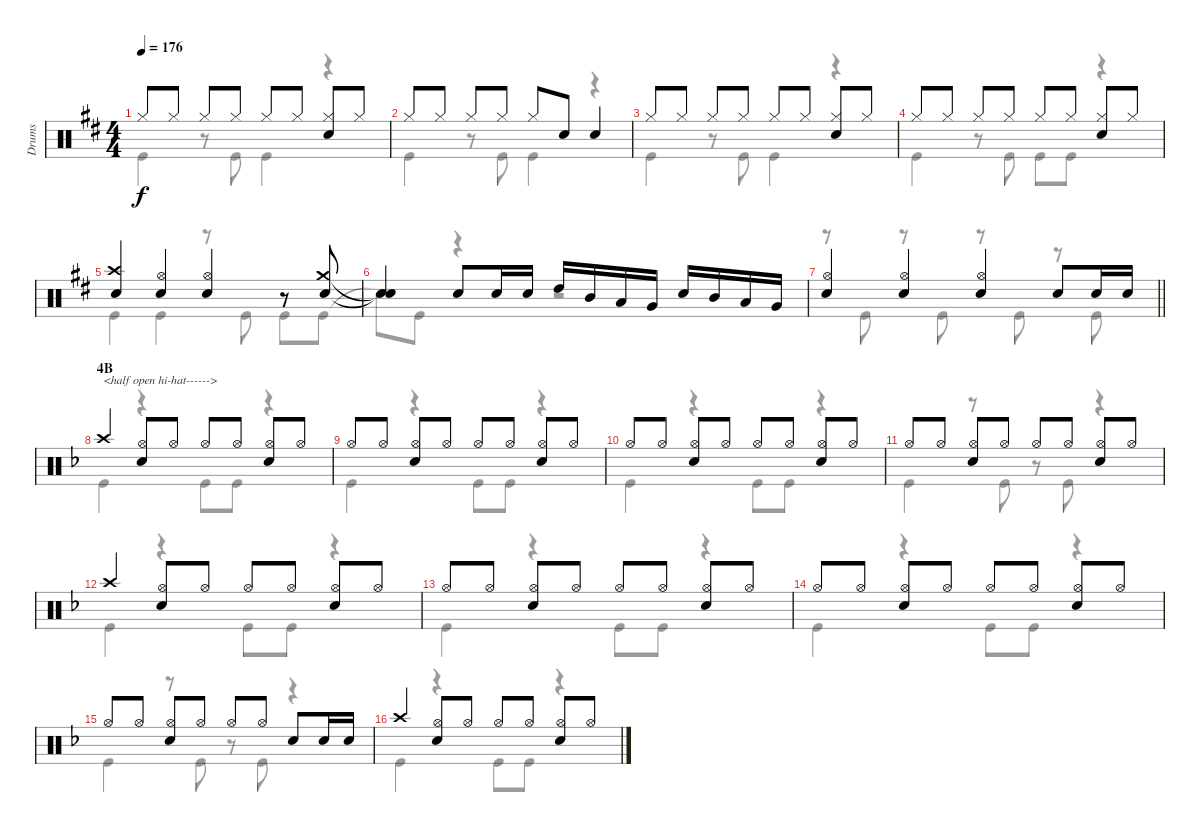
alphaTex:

\track ("Drums" "Drums") {instrument percussion}
\staff {score}
\articulation defaults
\voice
\ts (4 4)
\tempo 176
\clef neutral
\ks d "Hi-Hat (closed)".8{dy f} "Hi-Hat (closed)".8 "Hi-Hat (closed)".8 "Hi-Hat (closed)".8 "Hi-Hat (closed)".8 "Hi-Hat (closed)".8
("Hi-Hat (closed)" "Snare (hit) 2").8 "Hi-Hat (closed)".8 |
"Hi-Hat (closed)".8 "Hi-Hat (closed)".8 "Hi-Hat (closed)".8 "Hi-Hat (closed)".8 "Hi-Hat (closed)".8 "Snare (hit) 2".8 "Snare (hit) 2".4 |
"Hi-Hat (closed)".8 "Hi-Hat (closed)".8 "Hi-Hat (closed)".8 "Hi-Hat (closed)".8 "Hi-Hat (closed)".8 "Hi-Hat (closed)".8 ("Hi-Hat (closed)" "Snare (hit) 2").8 "Hi-Hat (closed)".8 |
"Hi-Hat (closed)".8 "Hi-Hat (closed)".8 "Hi-Hat (closed)".8 "Hi-Hat (closed)".8 "Hi-Hat (closed)".8 "Hi-Hat (closed)".8 ("Hi-Hat (closed)" "Snare (hit) 2").8 "Hi-Hat (closed)".8 |
("Crash high (hit)" "Snare (hit) 2").4 ("Hi-Hat (open)" "Snare (hit) 2").4 ("Hi-Hat (open)" "Snare (hit) 2").4 r.8 ("Crash medium (hit)" "Snare (hit) 2").8 |
("Snare (hit)"{t} "Snare (hit)"{t}).4 "Snare (hit) 2".8 "Snare (hit) 2".16 "Snare (hit) 2".16 "High Tom (hit)".16 "Mid Tom (hit)".16 "Low Tom (hit)".16 "Very Low Tom (hit)".16 "Snare (hit) 2".16 "Mid Tom (hit)".16 "Low Tom (hit)".16 "Very Low Tom (hit)".16 |
\barLineRight lightlight
("Hi-Hat (open)" "Snare (hit) 2").4 ("Hi-Hat (open)" "Snare (hit) 2").4 ("Hi-Hat (open)" "Snare (hit) 2").4 "Snare (hit) 2".8 "Snare (hit) 2".16 "Snare (hit) 2".16 |
\section ("" "4B")
\ks f "Crash high (hit)".4{txt "<half open hi-hat------>"}
("Hi-Hat (open)" "Snare (hit) 2").8 "Hi-Hat (open)".8 "Hi-Hat (open)".8 "Hi-Hat (open)".8 ("Hi-Hat (open)" "Snare (hit) 2").8 "Hi-Hat (open)".8 |
"Hi-Hat (open)".8 "Hi-Hat (open)".8 ("Hi-Hat (open)" "Snare (hit) 2").8 "Hi-Hat (open)".8 "Hi-Hat (open)".8 "Hi-Hat (open)".8 ("Hi-Hat (open)" "Snare (hit) 2").8 "Hi-Hat (open)".8 |
"Hi-Hat (open)".8 "Hi-Hat (open)".8 ("Hi-Hat (open)" "Snare (hit) 2").8 "Hi-Hat (open)".8 "Hi-Hat (open)".8 "Hi-Hat (open)".8 ("Hi-Hat (open)" "Snare (hit) 2").8 "Hi-Hat (open)".8 |
"Hi-Hat (open)".8 "Hi-Hat (open)".8 ("Hi-Hat (open)" "Snare (hit) 2").8 "Hi-Hat (open)".8 "Hi-Hat (open)".8 "Hi-Hat (open)".8 ("Hi-Hat (open)" "Snare (hit) 2").8 "Hi-Hat (open)".8 |
"Crash high (hit)".4 ("Hi-Hat (open)" "Snare (hit) 2").8 "Hi-Hat (open)".8 "Hi-Hat (open)".8 "Hi-Hat (open)".8 ("Hi-Hat (open)" "Snare (hit) 2").8 "Hi-Hat (open)".8 |
"Hi-Hat (open)".8 "Hi-Hat (open)".8 ("Hi-Hat (open)" "Snare (hit) 2").8 "Hi-Hat (open)".8 "Hi-Hat (open)".8 "Hi-Hat (open)".8 ("Hi-Hat (open)" "Snare (hit) 2").8 "Hi-Hat (open)".8 |
"Hi-Hat (open)".8 "Hi-Hat (open)".8 ("Hi-Hat (open)" "Snare (hit) 2").8 "Hi-Hat (open)".8 "Hi-Hat (open)".8 "Hi-Hat (open)".8 ("Hi-Hat (open)" "Snare (hit) 2").8 "Hi-Hat (open)".8 |
"Hi-Hat (open)".8 "Hi-Hat (open)".8 ("Hi-Hat (open)" "Snare (hit) 2").8 "Hi-Hat (open)".8 "Hi-Hat (open)".8 "Hi-Hat (open)".8 "Snare (hit) 2".8 "Snare (hit) 2".16 "Snare (hit) 2".16 |
"Crash high (hit)".4 ("Hi-Hat (open)" "Snare (hit) 2").8 "Hi-Hat (open)".8 "Hi-Hat (open)".8 "Hi-Hat (open)".8 ("Hi-Hat (open)" "Snare (hit) 2").8 "Hi-Hat (open)".8
\voice
\clef neutral
\ottava regular
\simile none
\ks d "Kick (hit)".4{dy f}
r.8 "Kick (hit)".8 "Kick (hit)".4 r.4 |
"Kick (hit)".4 r.8 "Kick (hit)".8 "Kick (hit)".4 r.4 |
"Kick (hit)".4 r.8 "Kick (hit)".8 "Kick (hit)".4 r.4 |
"Kick (hit)".4 r.8 "Kick (hit)".8 "Kick (hit)".8 "Kick (hit)".8 r.4 |
"Kick (hit)".4 "Kick (hit)".4 r.8 "Kick (hit)".8 "Kick (hit)".8 "Kick (hit)".8 |
"Snare (hit)"{t}.8 "Kick (hit)".8 r.4 r.2 |
\barLineRight lightlight
r.8 "Kick (hit)".8 r.8 "Kick (hit)".8 r.8 "Kick (hit)".8 r.8 "Kick (hit)".8 |
\ks f "Kick (hit)".4
r.4 "Kick (hit)".8 "Kick (hit)".8 r.4 |
"Kick (hit)".4 r.4 "Kick (hit)".8 "Kick (hit)".8 r.4 |
"Kick (hit)".4 r.4 "Kick (hit)".8 "Kick (hit)".8 r.4 |
"Kick (hit)".4 r.8 "Kick (hit)".8 r.8 "Kick (hit)".8 r.4 |
"Kick (hit)".4 r.4 "Kick (hit)".8 "Kick (hit)".8 r.4 |
"Kick (hit)".4 r.4 "Kick (hit)".8 "Kick (hit)".8 r.4 |
"Kick (hit)".4 r.4 "Kick (hit)".8 "Kick (hit)".8 r.4 |
"Kick (hit)".4 r.8 "Kick (hit)".8 r.8 "Kick (hit)".8 r.4 |
"Kick (hit)".4 r.4 "Kick (hit)".8 "Kick (hit)".8 r.4
